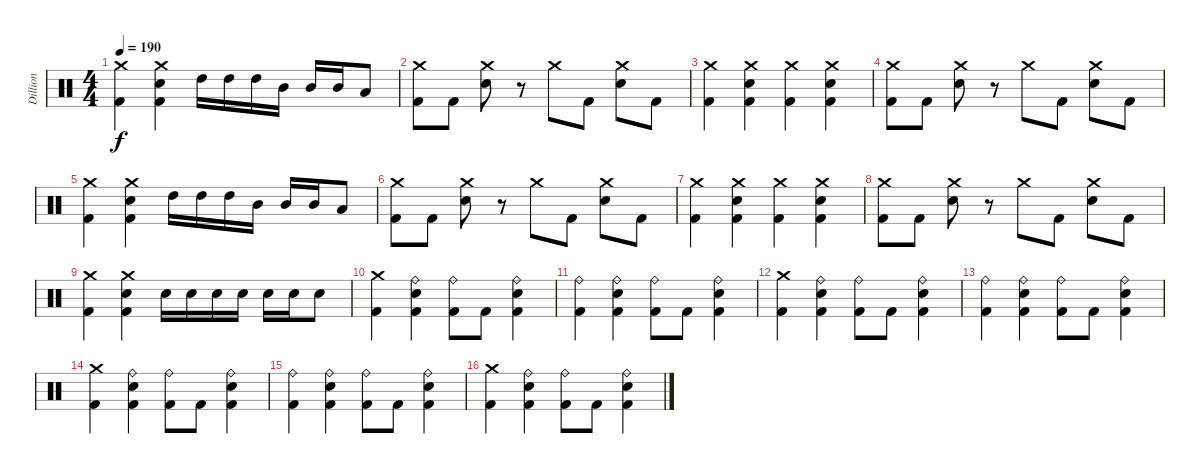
\track ("Dillion" "Dillion") {instrument percussion}
\staff {score}
\articulation defaults
\ts (4 4)
\tempo 190
\clef neutral
\ks c
("Crash medium (hit)" "Kick (hit) 2").4{dy f} ("Crash medium (hit)" "Electric Snare (hit)" "Kick (hit) 2").4 "High Tom (hit)".16 "High Tom (hit)".16 "High Tom (hit)".16 "Mid Tom (hit)".16 "Mid Tom (hit)".16 "Mid Tom (hit)".16 "Low Tom (hit)".8 |
("Crash medium (hit)" "Kick (hit) 2").8 "Kick (hit) 2".8 ("Crash medium (hit)" "Electric Snare (hit)").8 r.8 "Crash medium (hit)".8 "Kick (hit) 2".8 ("Crash medium (hit)" "Electric Snare (hit)").8 "Kick (hit) 2".8 |
("Crash medium (hit)" "Kick (hit) 2").4 ("Crash medium (hit)" "Electric Snare (hit)" "Kick (hit) 2").4 ("Crash medium (hit)" "Kick (hit) 2").4 ("Crash medium (hit)" "Electric Snare (hit)" "Kick (hit) 2").4 |
("Crash medium (hit)" "Kick (hit) 2").8 "Kick (hit) 2".8 ("Crash medium (hit)" "Electric Snare (hit)").8 r.8 "Crash medium (hit)".8 "Kick (hit) 2".8 ("Crash medium (hit)" "Electric Snare (hit)").8 "Kick (hit) 2".8 |
("Crash medium (hit)" "Kick (hit) 2").4 ("Crash medium (hit)" "Electric Snare (hit)" "Kick (hit) 2").4 "High Tom (hit)".16 "High Tom (hit)".16 "High Tom (hit)".16 "Mid Tom (hit)".16 "Mid Tom (hit)".16 "Mid Tom (hit)".16 "Low Tom (hit)".8 |
("Crash medium (hit)" "Kick (hit) 2").8 "Kick (hit) 2".8 ("Crash medium (hit)" "Electric Snare (hit)").8 r.8 "Crash medium (hit)".8 "Kick (hit) 2".8 ("Crash medium (hit)" "Electric Snare (hit)").8 "Kick (hit) 2".8 |
("Crash medium (hit)" "Kick (hit) 2").4 ("Crash medium (hit)" "Electric Snare (hit)" "Kick (hit) 2").4 ("Crash medium (hit)" "Kick (hit) 2").4 ("Crash medium (hit)" "Electric Snare (hit)" "Kick (hit) 2").4 |
("Crash medium (hit)" "Kick (hit) 2").8 "Kick (hit) 2".8 ("Crash medium (hit)" "Electric Snare (hit)").8 r.8 "Crash medium (hit)".8 "Kick (hit) 2".8 ("Crash medium (hit)" "Electric Snare (hit)").8 "Kick (hit) 2".8 |
("Crash medium (hit)" "Kick (hit) 2").4 ("Crash medium (hit)" "Electric Snare (hit)" "Kick (hit) 2").4 "Electric Snare (hit)".16 "Electric Snare (hit)".16 "Electric Snare (hit)".16 "Electric Snare (hit)".16 "Electric Snare (hit)".16 "Electric Snare (hit)".16 "Electric Snare (hit)".8 |
("Crash medium (hit)" "Kick (hit) 2").4 ("Ride (bell)" "Electric Snare (hit)" "Kick (hit) 2").4 ("Ride (bell)" "Kick (hit) 2").8 "Kick (hit) 2".8 ("Ride (bell)" "Electric Snare (hit)" "Kick (hit) 2").4 |
("Ride (bell)" "Kick (hit) 2").4 ("Ride (bell)" "Electric Snare (hit)" "Kick (hit) 2").4 ("Ride (bell)" "Kick (hit) 2").8 "Kick (hit) 2".8 ("Ride (bell)" "Electric Snare (hit)" "Kick (hit) 2").4 |
("Crash medium (hit)" "Kick (hit) 2").4 ("Ride (bell)" "Electric Snare (hit)" "Kick (hit) 2").4 ("Ride (bell)" "Kick (hit) 2").8 "Kick (hit) 2".8 ("Ride (bell)" "Electric Snare (hit)" "Kick (hit) 2").4 |
("Ride (bell)" "Kick (hit) 2").4 ("Ride (bell)" "Electric Snare (hit)" "Kick (hit) 2").4 ("Ride (bell)" "Kick (hit) 2").8 "Kick (hit) 2".8 ("Ride (bell)" "Electric Snare (hit)" "Kick (hit) 2").4 |
("Crash medium (hit)" "Kick (hit) 2").4 ("Ride (bell)" "Electric Snare (hit)" "Kick (hit) 2").4 ("Ride (bell)" "Kick (hit) 2").8 "Kick (hit) 2".8 ("Ride (bell)" "Electric Snare (hit)" "Kick (hit) 2").4 |
("Ride (bell)" "Kick (hit) 2").4 ("Ride (bell)" "Electric Snare (hit)" "Kick (hit) 2").4 ("Ride (bell)" "Kick (hit) 2").8 "Kick (hit) 2".8 ("Ride (bell)" "Electric Snare (hit)" "Kick (hit) 2").4 |
("Crash medium (hit)" "Kick (hit) 2").4 ("Ride (bell)" "Electric Snare (hit)" "Kick (hit) 2").4 ("Ride (bell)" "Kick (hit) 2").8 "Kick (hit) 2".8 ("Ride (bell)" "Electric Snare (hit)" "Kick (hit) 2").4
